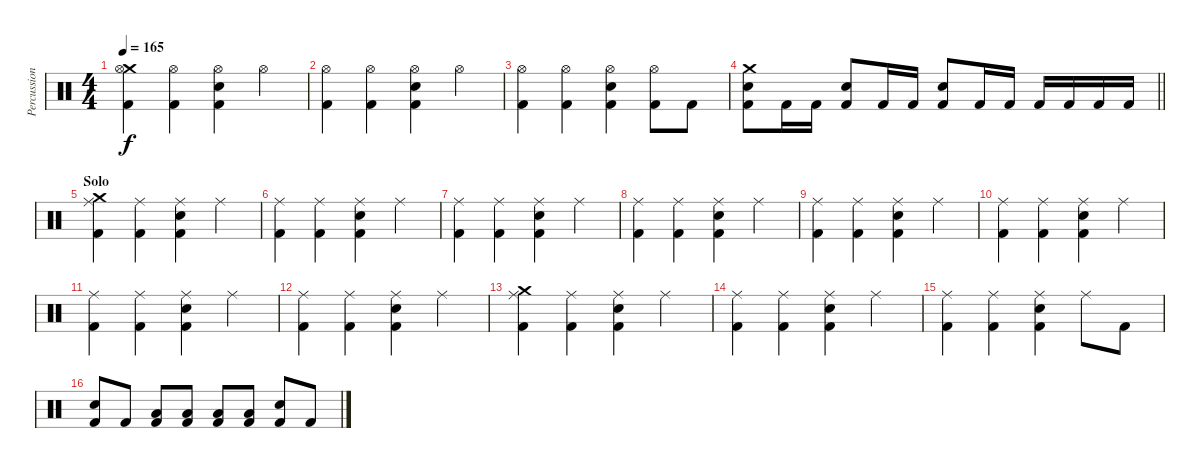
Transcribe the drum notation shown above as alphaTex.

\track ("Percussions" "Percussion") {instrument percussion}
\staff {score}
\articulation defaults
\ts (4 4)
\tempo 165
\clef neutral
\ks c
("Crash medium (hit)" "Hi-Hat (open)" "Kick (hit) 2").4{dy f} ("Hi-Hat (open)" "Kick (hit) 2").4 ("Hi-Hat (open)" "Electric Snare (hit)" "Kick (hit) 2").4 "Hi-Hat (open)".4 |
("Hi-Hat (open)" "Kick (hit) 2").4 ("Hi-Hat (open)" "Kick (hit) 2").4 ("Hi-Hat (open)" "Electric Snare (hit)" "Kick (hit) 2").4 "Hi-Hat (open)".4 |
("Hi-Hat (open)" "Kick (hit) 2").4 ("Hi-Hat (open)" "Kick (hit) 2").4 ("Hi-Hat (open)" "Electric Snare (hit)" "Kick (hit) 2").4 ("Hi-Hat (open)" "Kick (hit) 2").8 "Kick (hit) 2".8 |
\barLineRight lightlight
("Crash medium (hit)" "Electric Snare (hit)" "Kick (hit) 2").8 "Kick (hit) 2".16 "Kick (hit) 2".16 ("Electric Snare (hit)" "Kick (hit) 2").8 "Kick (hit) 2".16 "Kick (hit) 2".16 ("Electric Snare (hit)" "Kick (hit) 2").8 "Kick (hit) 2".16 "Kick (hit) 2".16 "Kick (hit) 2".16 "Kick (hit) 2".16 "Kick (hit) 2".16 "Kick (hit) 2".16 |
\section ("" "Solo")
("Crash medium (hit)" "Ride (middle)" "Kick (hit) 2").4 ("Ride (middle)" "Kick (hit) 2").4 ("Ride (middle)" "Electric Snare (hit)" "Kick (hit) 2").4 "Ride (middle)".4 |
("Ride (middle)" "Kick (hit) 2").4 ("Ride (middle)" "Kick (hit) 2").4 ("Ride (middle)" "Electric Snare (hit)" "Kick (hit) 2").4 "Ride (middle)".4 |
("Ride (middle)" "Kick (hit) 2").4 ("Ride (middle)" "Kick (hit) 2").4 ("Ride (middle)" "Electric Snare (hit)" "Kick (hit) 2").4 "Ride (middle)".4 |
("Ride (middle)" "Kick (hit) 2").4 ("Ride (middle)" "Kick (hit) 2").4 ("Ride (middle)" "Electric Snare (hit)" "Kick (hit) 2").4 "Ride (middle)".4 |
("Ride (middle)" "Kick (hit) 2").4 ("Ride (middle)" "Kick (hit) 2").4 ("Ride (middle)" "Electric Snare (hit)" "Kick (hit) 2").4 "Ride (middle)".4 |
("Ride (middle)" "Kick (hit) 2").4 ("Ride (middle)" "Kick (hit) 2").4 ("Ride (middle)" "Electric Snare (hit)" "Kick (hit) 2").4 "Ride (middle)".4 |
("Ride (middle)" "Kick (hit) 2").4 ("Ride (middle)" "Kick (hit) 2").4 ("Ride (middle)" "Electric Snare (hit)" "Kick (hit) 2").4 "Ride (middle)".4 |
("Ride (middle)" "Kick (hit) 2").4 ("Ride (middle)" "Kick (hit) 2").4 ("Ride (middle)" "Electric Snare (hit)" "Kick (hit) 2").4 "Ride (middle)".4 |
("Crash medium (hit)" "Ride (middle)" "Kick (hit) 2").4 ("Ride (middle)" "Kick (hit) 2").4 ("Ride (middle)" "Electric Snare (hit)" "Kick (hit) 2").4 "Ride (middle)".4 |
("Ride (middle)" "Kick (hit) 2").4 ("Ride (middle)" "Kick (hit) 2").4 ("Ride (middle)" "Electric Snare (hit)" "Kick (hit) 2").4 "Ride (middle)".4 |
("Ride (middle)" "Kick (hit) 2").4 ("Ride (middle)" "Kick (hit) 2").4 ("Ride (middle)" "Electric Snare (hit)" "Kick (hit) 2").4 "Ride (middle)".8 "Kick (hit) 2".8 |
("Electric Snare (hit)" "Kick (hit) 2").8 "Kick (hit) 2".8 ("Low Floor Tom (hit)" "Kick (hit) 2").8 ("Low Floor Tom (hit)" "Kick (hit) 2").8 ("Low Floor Tom (hit)" "Kick (hit) 2").8 ("Low Floor Tom (hit)" "Kick (hit) 2").8 ("Electric Snare (hit)" "Kick (hit) 2").8 "Kick (hit) 2".8
